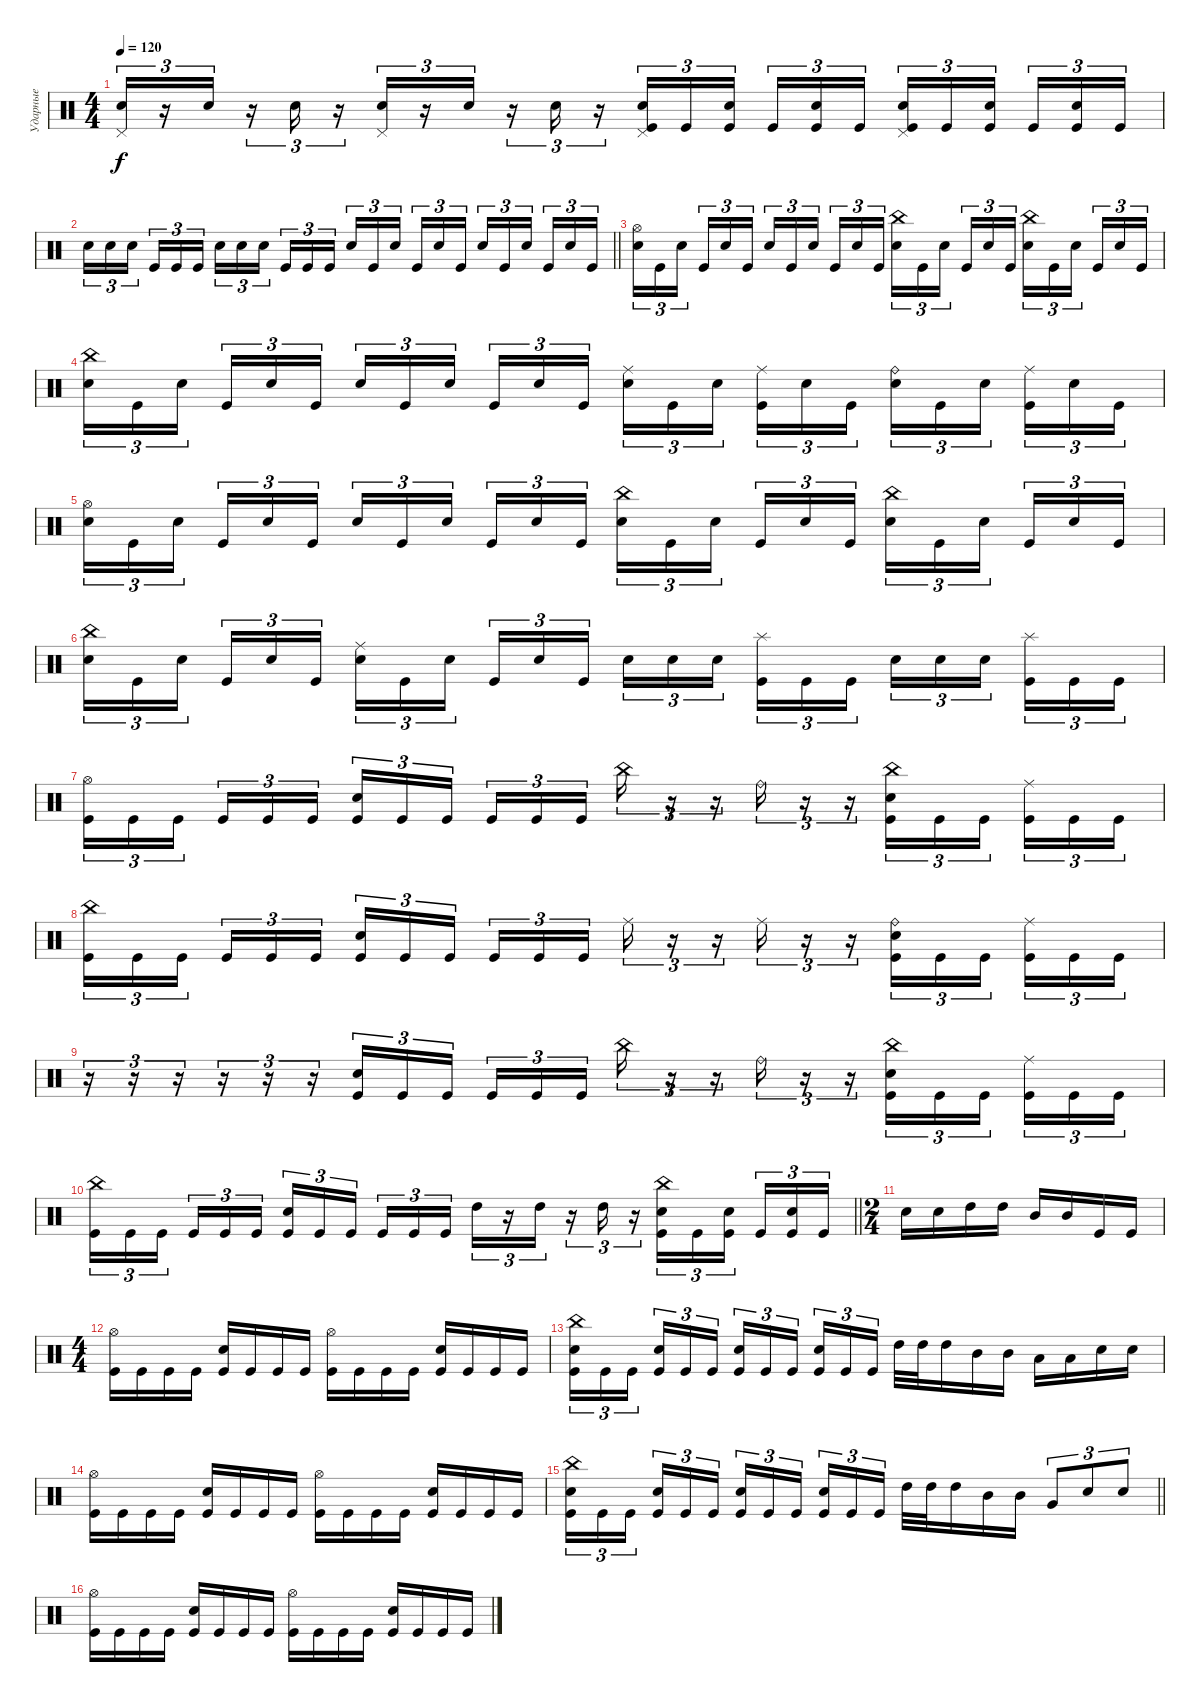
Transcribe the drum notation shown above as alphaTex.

\track ("Ударные" "Ударные") {instrument percussion}
\staff {score}
\articulation defaults
\ts (4 4)
\tempo 120
\clef neutral
\ks c
("Electric Snare (hit)" "Pedal Hi-Hat (hit)").16{tu (3 2) dy f} r.16{tu (3 2)} "Electric Snare (hit)".16{tu (3 2)} r.16{tu (3 2)} "Electric Snare (hit)".16{tu (3 2)} r.16{tu (3 2)} ("Electric Snare (hit)" "Pedal Hi-Hat (hit)").16{tu (3 2)} r.16{tu (3 2)} "Electric Snare (hit)".16{tu (3 2)} r.16{tu (3 2)} "Electric Snare (hit)".16{tu (3 2)} r.16{tu (3 2)} ("Electric Snare (hit)" "Pedal Hi-Hat (hit)" "Kick (hit)").16{tu (3 2)} "Kick (hit)".16{tu (3 2)} ("Electric Snare (hit)" "Kick (hit)").16{tu (3 2) beam splitsecondary} "Kick (hit)".16{tu (3 2)} ("Electric Snare (hit)" "Kick (hit)").16{tu (3 2)} "Kick (hit)".16{tu (3 2)} ("Electric Snare (hit)" "Pedal Hi-Hat (hit)" "Kick (hit)").16{tu (3 2)} "Kick (hit)".16{tu (3 2)} ("Electric Snare (hit)" "Kick (hit)").16{tu (3 2) beam splitsecondary} "Kick (hit)".16{tu (3 2)} ("Electric Snare (hit)" "Kick (hit)").16{tu (3 2)} "Kick (hit)".16{tu (3 2)} |
\barLineRight lightlight "Electric Snare (hit)".16{tu (3 2)} "Electric Snare (hit)".16{tu (3 2)} "Electric Snare (hit)".16{tu (3 2) beam splitsecondary} "Kick (hit)".16{tu (3 2)} "Kick (hit)".16{tu (3 2)} "Kick (hit)".16{tu (3 2)} "Electric Snare (hit)".16{tu (3 2)} "Electric Snare (hit)".16{tu (3 2)} "Electric Snare (hit)".16{tu (3 2) beam splitsecondary} "Kick (hit)".16{tu (3 2)} "Kick (hit)".16{tu (3 2)} "Kick (hit)".16{tu (3 2)} "Electric Snare (hit)".16{tu (3 2)} "Kick (hit)".16{tu (3 2)} "Electric Snare (hit)".16{tu (3 2) beam splitsecondary} "Kick (hit)".16{tu (3 2)} "Electric Snare (hit)".16{tu (3 2)} "Kick (hit)".16{tu (3 2)} "Electric Snare (hit)".16{tu (3 2)} "Kick (hit)".16{tu (3 2)} "Electric Snare (hit)".16{tu (3 2) beam splitsecondary} "Kick (hit)".16{tu (3 2)} "Electric Snare (hit)".16{tu (3 2)} "Kick (hit)".16{tu (3 2)}
|
\section ("" " ")
("Hi-Hat (open)" "Electric Snare (hit)").16{tu (3 2)} "Kick (hit)".16{tu (3 2)} "Electric Snare (hit)".16{tu (3 2) beam splitsecondary} "Kick (hit)".16{tu (3 2)} "Electric Snare (hit)".16{tu (3 2)} "Kick (hit)".16{tu (3 2)} "Electric Snare (hit)".16{tu (3 2)} "Kick (hit)".16{tu (3 2)} "Electric Snare (hit)".16{tu (3 2) beam splitsecondary} "Kick (hit)".16{tu (3 2)} "Electric Snare (hit)".16{tu (3 2)} "Kick (hit)".16{tu (3 2)} ("China (hit)" "Electric Snare (hit)").16{tu (3 2)} "Kick (hit)".16{tu (3 2)} "Electric Snare (hit)".16{tu (3 2) beam splitsecondary} "Kick (hit)".16{tu (3 2)} "Electric Snare (hit)".16{tu (3 2)} "Kick (hit)".16{tu (3 2)} ("China (hit)" "Electric Snare (hit)").16{tu (3 2)} "Kick (hit)".16{tu (3 2)} "Electric Snare (hit)".16{tu (3 2) beam splitsecondary} "Kick (hit)".16{tu (3 2)} "Electric Snare (hit)".16{tu (3 2)} "Kick (hit)".16{tu (3 2)} |
("China (hit)" "Electric Snare (hit)").16{tu (3 2)} "Kick (hit)".16{tu (3 2)} "Electric Snare (hit)".16{tu (3 2) beam splitsecondary} "Kick (hit)".16{tu (3 2)} "Electric Snare (hit)".16{tu (3 2)} "Kick (hit)".16{tu (3 2)} "Electric Snare (hit)".16{tu (3 2)} "Kick (hit)".16{tu (3 2)} "Electric Snare (hit)".16{tu (3 2) beam splitsecondary} "Kick (hit)".16{tu (3 2)} "Electric Snare (hit)".16{tu (3 2)} "Kick (hit)".16{tu (3 2)} ("Ride (middle)" "Electric Snare (hit)").16{tu (3 2)} "Kick (hit)".16{tu (3 2)} "Electric Snare (hit)".16{tu (3 2) beam splitsecondary} ("Ride (middle)" "Kick (hit)").16{tu (3 2)} "Electric Snare (hit)".16{tu (3 2)} "Kick (hit)".16{tu (3 2)} ("Ride (bell)" "Electric Snare (hit)").16{tu (3 2)} "Kick (hit)".16{tu (3 2)} "Electric Snare (hit)".16{tu (3 2) beam splitsecondary} ("Ride (middle)" "Kick (hit)").16{tu (3 2)} "Electric Snare (hit)".16{tu (3 2)} "Kick (hit)".16{tu (3 2)} |
("Hi-Hat (open)" "Electric Snare (hit)").16{tu (3 2)} "Kick (hit)".16{tu (3 2)} "Electric Snare (hit)".16{tu (3 2) beam splitsecondary} "Kick (hit)".16{tu (3 2)} "Electric Snare (hit)".16{tu (3 2)} "Kick (hit)".16{tu (3 2)} "Electric Snare (hit)".16{tu (3 2)} "Kick (hit)".16{tu (3 2)} "Electric Snare (hit)".16{tu (3 2) beam splitsecondary} "Kick (hit)".16{tu (3 2)} "Electric Snare (hit)".16{tu (3 2)} "Kick (hit)".16{tu (3 2)} ("China (hit)" "Electric Snare (hit)").16{tu (3 2)} "Kick (hit)".16{tu (3 2)} "Electric Snare (hit)".16{tu (3 2) beam splitsecondary} "Kick (hit)".16{tu (3 2)} "Electric Snare (hit)".16{tu (3 2)} "Kick (hit)".16{tu (3 2)} ("China (hit)" "Electric Snare (hit)").16{tu (3 2)} "Kick (hit)".16{tu (3 2)} "Electric Snare (hit)".16{tu (3 2) beam splitsecondary} "Kick (hit)".16{tu (3 2)} "Electric Snare (hit)".16{tu (3 2)} "Kick (hit)".16{tu (3 2)} |
("China (hit)" "Electric Snare (hit)").16{tu (3 2)} "Kick (hit)".16{tu (3 2)} "Electric Snare (hit)".16{tu (3 2) beam splitsecondary} "Kick (hit)".16{tu (3 2)} "Electric Snare (hit)".16{tu (3 2)} "Kick (hit)".16{tu (3 2)} ("Ride (middle)" "Electric Snare (hit)").16{tu (3 2)} "Kick (hit)".16{tu (3 2)} "Electric Snare (hit)".16{tu (3 2) beam splitsecondary} "Kick (hit)".16{tu (3 2)} "Electric Snare (hit)".16{tu (3 2)} "Kick (hit)".16{tu (3 2)} "Electric Snare (hit)".16{tu (3 2)} "Electric Snare (hit)".16{tu (3 2)} "Electric Snare (hit)".16{tu (3 2) beam splitsecondary} ("Splash (hit)" "Kick (hit)").16{tu (3 2)} "Kick (hit)".16{tu (3 2)} "Kick (hit)".16{tu (3 2)} "Electric Snare (hit)".16{tu (3 2)} "Electric Snare (hit)".16{tu (3 2)} "Electric Snare (hit)".16{tu (3 2) beam splitsecondary} ("Splash (hit)" "Kick (hit)").16{tu (3 2)} "Kick (hit)".16{tu (3 2)} "Kick (hit)".16{tu (3 2)} |
("Hi-Hat (open)" "Kick (hit)").16{tu (3 2)} "Kick (hit)".16{tu (3 2)} "Kick (hit)".16{tu (3 2) beam splitsecondary} "Kick (hit)".16{tu (3 2)} "Kick (hit)".16{tu (3 2)} "Kick (hit)".16{tu (3 2)} ("Electric Snare (hit)" "Kick (hit)").16{tu (3 2)} "Kick (hit)".16{tu (3 2)} "Kick (hit)".16{tu (3 2) beam splitsecondary} "Kick (hit)".16{tu (3 2)} "Kick (hit)".16{tu (3 2)} "Kick (hit)".16{tu (3 2)} "China (hit)".16{tu (3 2)} r.16{tu (3 2)} r.16{tu (3 2)} "Ride (bell)".16{tu (3 2)} r.16{tu (3 2)} r.16{tu (3 2)} ("China (hit)" "Electric Snare (hit)" "Kick (hit)").16{tu (3 2)} "Kick (hit)".16{tu (3 2)} "Kick (hit)".16{tu (3 2) beam splitsecondary} ("Ride (middle)" "Kick (hit)").16{tu (3 2)} "Kick (hit)".16{tu (3 2)} "Kick (hit)".16{tu (3 2)} |
("China (hit)" "Kick (hit)").16{tu (3 2)} "Kick (hit)".16{tu (3 2)} "Kick (hit)".16{tu (3 2) beam splitsecondary} "Kick (hit)".16{tu (3 2)} "Kick (hit)".16{tu (3 2)} "Kick (hit)".16{tu (3 2)} ("Electric Snare (hit)" "Kick (hit)").16{tu (3 2)} "Kick (hit)".16{tu (3 2)} "Kick (hit)".16{tu (3 2) beam splitsecondary} "Kick (hit)".16{tu (3 2)} "Kick (hit)".16{tu (3 2)} "Kick (hit)".16{tu (3 2)} "Ride (middle)".16{tu (3 2)} r.16{tu (3 2)} r.16{tu (3 2)} "Ride (middle)".16{tu (3 2)} r.16{tu (3 2)} r.16{tu (3 2)} ("Ride (bell)" "Electric Snare (hit)" "Kick (hit)").16{tu (3 2)} "Kick (hit)".16{tu (3 2)} "Kick (hit)".16{tu (3 2) beam splitsecondary} ("Ride (middle)" "Kick (hit)").16{tu (3 2)} "Kick (hit)".16{tu (3 2)} "Kick (hit)".16{tu (3 2)} |
r.16{tu (3 2)} r.16{tu (3 2)} r.16{tu (3 2)} r.16{tu (3 2)} r.16{tu (3 2)} r.16{tu (3 2)} ("Electric Snare (hit)" "Kick (hit)").16{tu (3 2)} "Kick (hit)".16{tu (3 2)} "Kick (hit)".16{tu (3 2) beam splitsecondary} "Kick (hit)".16{tu (3 2)} "Kick (hit)".16{tu (3 2)} "Kick (hit)".16{tu (3 2)} "China (hit)".16{tu (3 2)} r.16{tu (3 2)} r.16{tu (3 2)} "Ride (bell)".16{tu (3 2)} r.16{tu (3 2)} r.16{tu (3 2)} ("China (hit)" "Electric Snare (hit)" "Kick (hit)").16{tu (3 2)} "Kick (hit)".16{tu (3 2)} "Kick (hit)".16{tu (3 2) beam splitsecondary} ("Ride (middle)" "Kick (hit)").16{tu (3 2)} "Kick (hit)".16{tu (3 2)} "Kick (hit)".16{tu (3 2)} |
\barLineRight lightlight
("China (hit)" "Kick (hit)").16{tu (3 2)} "Kick (hit)".16{tu (3 2)} "Kick (hit)".16{tu (3 2) beam splitsecondary} "Kick (hit)".16{tu (3 2)} "Kick (hit)".16{tu (3 2)} "Kick (hit)".16{tu (3 2)} ("Electric Snare (hit)" "Kick (hit)").16{tu (3 2)} "Kick (hit)".16{tu (3 2)} "Kick (hit)".16{tu (3 2) beam splitsecondary} "Kick (hit)".16{tu (3 2)} "Kick (hit)".16{tu (3 2)} "Kick (hit)".16{tu (3 2)} "High Tom (hit)".16{tu (3 2)} r.16{tu (3 2)} "High Tom (hit)".16{tu (3 2)} r.16{tu (3 2)} "High Tom (hit)".16{tu (3 2)} r.16{tu (3 2)} ("China (hit)" "Electric Snare (hit)" "Kick (hit)").16{tu (3 2)} "Kick (hit)".16{tu (3 2)} ("Electric Snare (hit)" "Kick (hit)").16{tu (3 2) beam splitsecondary} "Kick (hit)".16{tu (3 2)} ("Electric Snare (hit)" "Kick (hit)").16{tu (3 2)} "Kick (hit)".16{tu (3 2)} |
\ts (2 4)
"Electric Snare (hit)".16 "Electric Snare (hit)".16 "High Tom (hit)".16 "High Tom (hit)".16 "Mid Tom (hit)".16 "Mid Tom (hit)".16 "Kick (hit)".16 "Kick (hit)".16 |
\ts (4 4)
("Hi-Hat (open)" "Kick (hit)").16 "Kick (hit)".16 "Kick (hit)".16 "Kick (hit)".16 ("Electric Snare (hit)" "Kick (hit)").16 "Kick (hit)".16 "Kick (hit)".16 "Kick (hit)".16 ("Hi-Hat (open)" "Kick (hit)").16 "Kick (hit)".16 "Kick (hit)".16 "Kick (hit)".16 ("Electric Snare (hit)" "Kick (hit)").16 "Kick (hit)".16 "Kick (hit)".16 "Kick (hit)".16 |
("China (hit)" "Electric Snare (hit)" "Kick (hit)").16{tu (3 2)} "Kick (hit)".16{tu (3 2)} "Kick (hit)".16{tu (3 2) beam splitsecondary} ("Electric Snare (hit)" "Kick (hit)").16{tu (3 2)} "Kick (hit)".16{tu (3 2)} "Kick (hit)".16{tu (3 2)} ("Electric Snare (hit)" "Kick (hit)").16{tu (3 2)} "Kick (hit)".16{tu (3 2)} "Kick (hit)".16{tu (3 2) beam splitsecondary} ("Electric Snare (hit)" "Kick (hit)").16{tu (3 2)} "Kick (hit)".16{tu (3 2)} "Kick (hit)".16{tu (3 2)} "High Tom (hit)".32 "High Tom (hit)".32 "High Tom (hit)".16 "Mid Tom (hit)".16 "Mid Tom (hit)".16 "Low Tom (hit)".16 "Low Tom (hit)".16 "Electric Snare (hit)".16 "Electric Snare (hit)".16 |
("Hi-Hat (open)" "Kick (hit)").16 "Kick (hit)".16 "Kick (hit)".16 "Kick (hit)".16 ("Electric Snare (hit)" "Kick (hit)").16 "Kick (hit)".16 "Kick (hit)".16 "Kick (hit)".16 ("Hi-Hat (open)" "Kick (hit)").16 "Kick (hit)".16 "Kick (hit)".16 "Kick (hit)".16 ("Electric Snare (hit)" "Kick (hit)").16 "Kick (hit)".16 "Kick (hit)".16 "Kick (hit)".16 |
\barLineRight lightlight
("China (hit)" "Electric Snare (hit)" "Kick (hit)").16{tu (3 2)} "Kick (hit)".16{tu (3 2)} "Kick (hit)".16{tu (3 2) beam splitsecondary} ("Electric Snare (hit)" "Kick (hit)").16{tu (3 2)} "Kick (hit)".16{tu (3 2)} "Kick (hit)".16{tu (3 2)} ("Electric Snare (hit)" "Kick (hit)").16{tu (3 2)} "Kick (hit)".16{tu (3 2)} "Kick (hit)".16{tu (3 2) beam splitsecondary} ("Electric Snare (hit)" "Kick (hit)").16{tu (3 2)} "Kick (hit)".16{tu (3 2)} "Kick (hit)".16{tu (3 2)} "High Tom (hit)".32 "High Tom (hit)".32 "High Tom (hit)".16 "Mid Tom (hit)".16 "Mid Tom (hit)".16 "Very Low Tom (hit)".8{tu (3 2)} "Electric Snare (hit)".8{tu (3 2)} "Electric Snare (hit)".8{tu (3 2)} |
("Hi-Hat (open)" "Kick (hit)").16 "Kick (hit)".16 "Kick (hit)".16 "Kick (hit)".16 ("Electric Snare (hit)" "Kick (hit)").16 "Kick (hit)".16 "Kick (hit)".16 "Kick (hit)".16 ("Hi-Hat (open)" "Kick (hit)").16 "Kick (hit)".16 "Kick (hit)".16 "Kick (hit)".16 ("Electric Snare (hit)" "Kick (hit)").16 "Kick (hit)".16 "Kick (hit)".16 "Kick (hit)".16
